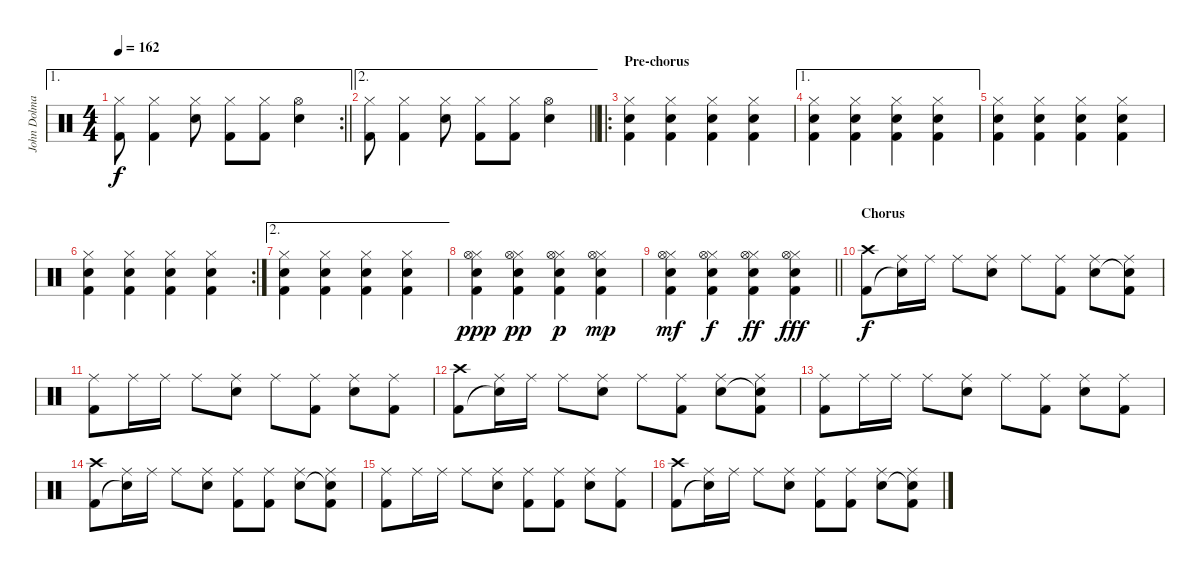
\track ("John Dolmayan" "John Dolma") {instrument percussion}
\staff {score}
\articulation defaults
\ae 1
\rc 2
\ts (4 4)
\tempo 162
\clef neutral
\barLineRight lightlight
\ks c
("Hi-Hat (closed)" "Kick (hit) 2").8{dy f} ("Hi-Hat (closed)" "Kick (hit) 2").4 ("Hi-Hat (closed)" "Electric Snare (hit)").8 ("Hi-Hat (closed)" "Kick (hit) 2").8 ("Hi-Hat (closed)" "Kick (hit) 2").8 ("Hi-Hat (open)" "Electric Snare (hit)").4 |
\ae 2
\barLineRight lightlight
("Hi-Hat (closed)" "Kick (hit) 2").8 ("Hi-Hat (closed)" "Kick (hit) 2").4 ("Hi-Hat (closed)" "Electric Snare (hit)").8 ("Hi-Hat (closed)" "Kick (hit) 2").8 ("Hi-Hat (closed)" "Kick (hit) 2").8 ("Hi-Hat (open)" "Electric Snare (hit)").4 |
\ro
\section ("" "Pre-chorus")
("Hi-Hat (closed)" "Electric Snare (hit)" "Kick (hit) 2").4 ("Hi-Hat (closed)" "Electric Snare (hit)" "Kick (hit) 2").4 ("Hi-Hat (closed)" "Electric Snare (hit)" "Kick (hit) 2").4 ("Hi-Hat (closed)" "Electric Snare (hit)" "Kick (hit) 2").4 |
\ae 1
("Hi-Hat (closed)" "Electric Snare (hit)" "Kick (hit) 2").4 ("Hi-Hat (closed)" "Electric Snare (hit)" "Kick (hit) 2").4 ("Hi-Hat (closed)" "Electric Snare (hit)" "Kick (hit) 2").4 ("Hi-Hat (closed)" "Electric Snare (hit)" "Kick (hit) 2").4 |
("Hi-Hat (closed)" "Electric Snare (hit)" "Kick (hit) 2").4 ("Hi-Hat (closed)" "Electric Snare (hit)" "Kick (hit) 2").4 ("Hi-Hat (closed)" "Electric Snare (hit)" "Kick (hit) 2").4 ("Hi-Hat (closed)" "Electric Snare (hit)" "Kick (hit) 2").4 |
\rc 2
("Hi-Hat (closed)" "Electric Snare (hit)" "Kick (hit) 2").4 ("Hi-Hat (closed)" "Electric Snare (hit)" "Kick (hit) 2").4 ("Hi-Hat (closed)" "Electric Snare (hit)" "Kick (hit) 2").4 ("Hi-Hat (closed)" "Electric Snare (hit)" "Kick (hit) 2").4 |
\ae 2
("Hi-Hat (closed)" "Electric Snare (hit)" "Kick (hit) 2").4 ("Hi-Hat (closed)" "Electric Snare (hit)" "Kick (hit) 2").4 ("Hi-Hat (closed)" "Electric Snare (hit)" "Kick (hit) 2").4 ("Hi-Hat (closed)" "Electric Snare (hit)" "Kick (hit) 2").4 |
("Hi-Hat (closed)" "Hi-Hat (open)" "Electric Snare (hit)" "Kick (hit) 2").4{dy ppp} ("Hi-Hat (closed)" "Hi-Hat (open)" "Electric Snare (hit)" "Kick (hit) 2").4{dy pp} ("Hi-Hat (closed)" "Hi-Hat (open)" "Electric Snare (hit)" "Kick (hit) 2").4{dy p} ("Hi-Hat (closed)" "Hi-Hat (open)" "Electric Snare (hit)" "Kick (hit) 2").4{dy mp} |
\barLineRight lightlight
("Hi-Hat (closed)" "Hi-Hat (open)" "Electric Snare (hit)" "Kick (hit) 2").4{dy mf} ("Hi-Hat (closed)" "Hi-Hat (open)" "Electric Snare (hit)" "Kick (hit) 2").4{dy f} ("Hi-Hat (closed)" "Hi-Hat (open)" "Electric Snare (hit)" "Kick (hit) 2").4{dy ff} ("Hi-Hat (closed)" "Hi-Hat (open)" "Electric Snare (hit)" "Kick (hit) 2").4{dy fff} |
\section ("" "Chorus")
("Crash high (hit)" "Kick (hit) 2").8{dy f} ("Ride (middle)" "Snare (hit)"{t}).16 "Ride (middle)".16 "Ride (middle)".8 ("Ride (middle)" "Electric Snare (hit)").8 "Ride (middle)".8 ("Ride (middle)" "Kick (hit) 2").8 ("Ride (middle)" "Electric Snare (hit)").8 ("Ride (middle)" "Snare (hit)"{t} "Kick (hit) 2").8 |
("Ride (middle)" "Kick (hit) 2").8 "Ride (middle)".16 "Ride (middle)".16 "Ride (middle)".8 ("Ride (middle)" "Electric Snare (hit)").8 "Ride (middle)".8 ("Ride (middle)" "Kick (hit) 2").8 ("Ride (middle)" "Electric Snare (hit)").8 ("Ride (middle)" "Kick (hit) 2").8 |
("Crash high (hit)" "Kick (hit) 2").8 ("Ride (middle)" "Snare (hit)"{t}).16 "Ride (middle)".16 "Ride (middle)".8 ("Ride (middle)" "Electric Snare (hit)").8 "Ride (middle)".8 ("Ride (middle)" "Kick (hit) 2").8 ("Ride (middle)" "Electric Snare (hit)").8 ("Ride (middle)" "Snare (hit)"{t} "Kick (hit) 2").8 |
("Ride (middle)" "Kick (hit) 2").8 "Ride (middle)".16 "Ride (middle)".16 "Ride (middle)".8 ("Ride (middle)" "Electric Snare (hit)").8 "Ride (middle)".8 ("Ride (middle)" "Kick (hit) 2").8 ("Ride (middle)" "Electric Snare (hit)").8 ("Ride (middle)" "Kick (hit) 2").8 |
("Crash high (hit)" "Kick (hit) 2").8 ("Ride (middle)" "Snare (hit)"{t}).16 "Ride (middle)".16 "Ride (middle)".8 ("Ride (middle)" "Electric Snare (hit)").8 ("Ride (middle)" "Kick (hit) 2").8 ("Ride (middle)" "Kick (hit) 2").8 ("Ride (middle)" "Electric Snare (hit)").8 ("Ride (middle)" "Snare (hit)"{t} "Kick (hit) 2").8 |
("Ride (middle)" "Kick (hit) 2").8 "Ride (middle)".16 "Ride (middle)".16 "Ride (middle)".8 ("Ride (middle)" "Electric Snare (hit)").8 ("Ride (middle)" "Kick (hit) 2").8 ("Ride (middle)" "Kick (hit) 2").8 ("Ride (middle)" "Electric Snare (hit)").8 ("Ride (middle)" "Kick (hit) 2").8 |
("Crash high (hit)" "Kick (hit) 2").8 ("Ride (middle)" "Snare (hit)"{t}).16 "Ride (middle)".16 "Ride (middle)".8 ("Ride (middle)" "Electric Snare (hit)").8 ("Ride (middle)" "Kick (hit) 2").8 ("Ride (middle)" "Kick (hit) 2").8 ("Ride (middle)" "Electric Snare (hit)").8 ("Ride (middle)" "Snare (hit)"{t} "Kick (hit) 2").8
